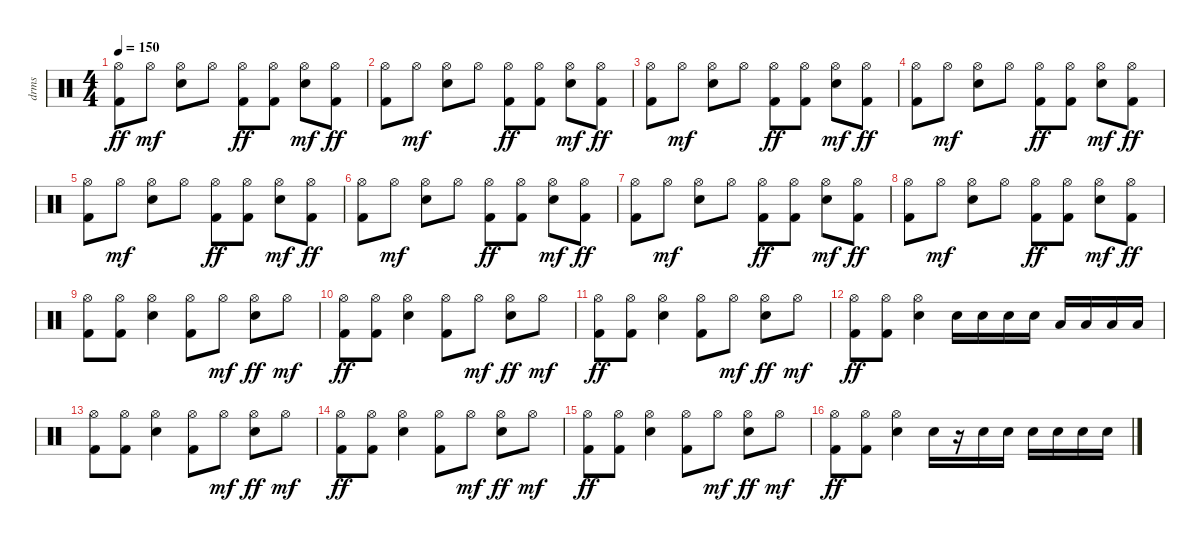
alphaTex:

\track ("drms" "drms") {instrument percussion}
\staff {score}
\articulation defaults
\ts (4 4)
\tempo 150
\clef neutral
\ks c
("Hi-Hat (open)" "Kick (hit) 2").8{dy ff} "Hi-Hat (open)".8{dy mf} ("Hi-Hat (open)" "Snare (hit) 2").8 "Hi-Hat (open)".8 ("Hi-Hat (open)" "Kick (hit) 2").8{dy ff} ("Hi-Hat (open)" "Kick (hit) 2").8 ("Hi-Hat (open)" "Snare (hit) 2").8{dy mf} ("Hi-Hat (open)" "Kick (hit) 2").8{dy ff} |
("Hi-Hat (open)" "Kick (hit) 2").8 "Hi-Hat (open)".8{dy mf} ("Hi-Hat (open)" "Snare (hit) 2").8 "Hi-Hat (open)".8 ("Hi-Hat (open)" "Kick (hit) 2").8{dy ff} ("Hi-Hat (open)" "Kick (hit) 2").8 ("Hi-Hat (open)" "Snare (hit) 2").8{dy mf} ("Hi-Hat (open)" "Kick (hit) 2").8{dy ff} |
("Hi-Hat (open)" "Kick (hit) 2").8 "Hi-Hat (open)".8{dy mf} ("Hi-Hat (open)" "Snare (hit) 2").8 "Hi-Hat (open)".8 ("Hi-Hat (open)" "Kick (hit) 2").8{dy ff} ("Hi-Hat (open)" "Kick (hit) 2").8 ("Hi-Hat (open)" "Snare (hit) 2").8{dy mf} ("Hi-Hat (open)" "Kick (hit) 2").8{dy ff} |
("Hi-Hat (open)" "Kick (hit) 2").8 "Hi-Hat (open)".8{dy mf} ("Hi-Hat (open)" "Snare (hit) 2").8 "Hi-Hat (open)".8 ("Hi-Hat (open)" "Kick (hit) 2").8{dy ff} ("Hi-Hat (open)" "Kick (hit) 2").8 ("Hi-Hat (open)" "Snare (hit) 2").8{dy mf} ("Hi-Hat (open)" "Kick (hit) 2").8{dy ff} |
("Hi-Hat (open)" "Kick (hit) 2").8 "Hi-Hat (open)".8{dy mf} ("Hi-Hat (open)" "Snare (hit) 2").8 "Hi-Hat (open)".8 ("Hi-Hat (open)" "Kick (hit) 2").8{dy ff} ("Hi-Hat (open)" "Kick (hit) 2").8 ("Hi-Hat (open)" "Snare (hit) 2").8{dy mf} ("Hi-Hat (open)" "Kick (hit) 2").8{dy ff} |
("Hi-Hat (open)" "Kick (hit) 2").8 "Hi-Hat (open)".8{dy mf} ("Hi-Hat (open)" "Snare (hit) 2").8 "Hi-Hat (open)".8 ("Hi-Hat (open)" "Kick (hit) 2").8{dy ff} ("Hi-Hat (open)" "Kick (hit) 2").8 ("Hi-Hat (open)" "Snare (hit) 2").8{dy mf} ("Hi-Hat (open)" "Kick (hit) 2").8{dy ff} |
("Hi-Hat (open)" "Kick (hit) 2").8 "Hi-Hat (open)".8{dy mf} ("Hi-Hat (open)" "Snare (hit) 2").8 "Hi-Hat (open)".8 ("Hi-Hat (open)" "Kick (hit) 2").8{dy ff} ("Hi-Hat (open)" "Kick (hit) 2").8 ("Hi-Hat (open)" "Snare (hit) 2").8{dy mf} ("Hi-Hat (open)" "Kick (hit) 2").8{dy ff} |
("Hi-Hat (open)" "Kick (hit) 2").8 "Hi-Hat (open)".8{dy mf} ("Hi-Hat (open)" "Snare (hit) 2").8 "Hi-Hat (open)".8 ("Hi-Hat (open)" "Kick (hit) 2").8{dy ff} ("Hi-Hat (open)" "Kick (hit) 2").8 ("Hi-Hat (open)" "Snare (hit) 2").8{dy mf} ("Hi-Hat (open)" "Kick (hit) 2").8{dy ff} |
("Hi-Hat (open)" "Kick (hit) 2").8 ("Hi-Hat (open)" "Kick (hit) 2").8 ("Hi-Hat (open)" "Snare (hit) 2").4 ("Hi-Hat (open)" "Kick (hit) 2").8 "Hi-Hat (open)".8{dy mf} ("Hi-Hat (open)" "Snare (hit) 2").8{dy ff} "Hi-Hat (open)".8{dy mf} |
("Hi-Hat (open)" "Kick (hit) 2").8{dy ff} ("Hi-Hat (open)" "Kick (hit) 2").8 ("Hi-Hat (open)" "Snare (hit) 2").4 ("Hi-Hat (open)" "Kick (hit) 2").8 "Hi-Hat (open)".8{dy mf} ("Hi-Hat (open)" "Snare (hit) 2").8{dy ff} "Hi-Hat (open)".8{dy mf} |
("Hi-Hat (open)" "Kick (hit) 2").8{dy ff} ("Hi-Hat (open)" "Kick (hit) 2").8 ("Hi-Hat (open)" "Snare (hit) 2").4 ("Hi-Hat (open)" "Kick (hit) 2").8 "Hi-Hat (open)".8{dy mf} ("Hi-Hat (open)" "Snare (hit) 2").8{dy ff} "Hi-Hat (open)".8{dy mf} |
("Hi-Hat (open)" "Kick (hit) 2").8{dy ff} ("Hi-Hat (open)" "Kick (hit) 2").8 ("Hi-Hat (open)" "Snare (hit) 2").4 "Snare (hit) 2".16 "Snare (hit) 2".16 "Snare (hit) 2".16 "Snare (hit) 2".16 "Low Tom (hit)".16 "Low Tom (hit)".16 "Low Tom (hit)".16 "Low Tom (hit)".16 |
("Hi-Hat (open)" "Kick (hit) 2").8 ("Hi-Hat (open)" "Kick (hit) 2").8 ("Hi-Hat (open)" "Snare (hit) 2").4 ("Hi-Hat (open)" "Kick (hit) 2").8 "Hi-Hat (open)".8{dy mf} ("Hi-Hat (open)" "Snare (hit) 2").8{dy ff} "Hi-Hat (open)".8{dy mf} |
("Hi-Hat (open)" "Kick (hit) 2").8{dy ff} ("Hi-Hat (open)" "Kick (hit) 2").8 ("Hi-Hat (open)" "Snare (hit) 2").4 ("Hi-Hat (open)" "Kick (hit) 2").8 "Hi-Hat (open)".8{dy mf} ("Hi-Hat (open)" "Snare (hit) 2").8{dy ff} "Hi-Hat (open)".8{dy mf} |
("Hi-Hat (open)" "Kick (hit) 2").8{dy ff} ("Hi-Hat (open)" "Kick (hit) 2").8 ("Hi-Hat (open)" "Snare (hit) 2").4 ("Hi-Hat (open)" "Kick (hit) 2").8 "Hi-Hat (open)".8{dy mf} ("Hi-Hat (open)" "Snare (hit) 2").8{dy ff} "Hi-Hat (open)".8{dy mf} |
("Hi-Hat (open)" "Kick (hit) 2").8{dy ff} ("Hi-Hat (open)" "Kick (hit) 2").8 ("Hi-Hat (open)" "Snare (hit) 2").4 "Snare (hit) 2".16 r.16 "Snare (hit) 2".16 "Snare (hit) 2".16 "Snare (hit) 2".16 "Snare (hit) 2".16 "Snare (hit) 2".16 "Snare (hit) 2".16
